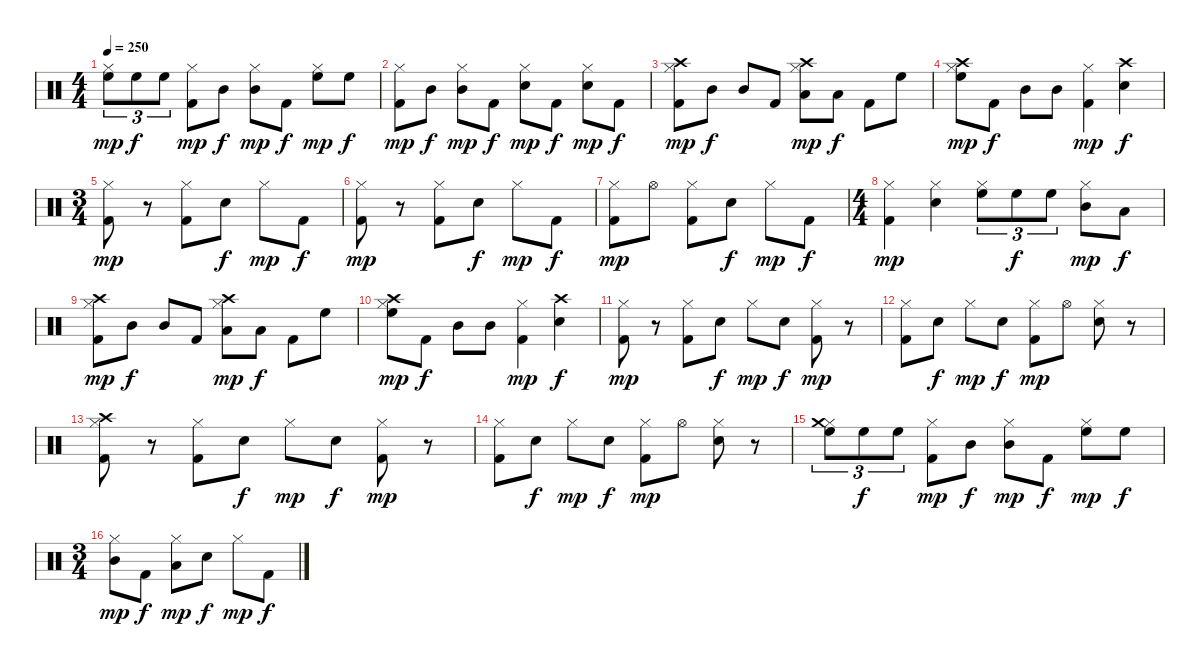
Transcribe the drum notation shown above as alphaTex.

\track "" {instrument percussion}
\staff {score}
\articulation defaults
\ts (4 4)
\tempo 250
\clef neutral
\ks c
("Hi-Hat (closed)" "High Floor Tom (hit)").8{tu (3 2) dy mp balance 14} "High Floor Tom (hit)".8{tu (3 2) dy f} "High Floor Tom (hit)".8{tu (3 2)} ("Hi-Hat (closed)" "Kick (hit) 2").8{dy mp balance 8} "Mid Tom (hit)".8{dy f} ("Hi-Hat (closed)" "Mid Tom (hit)").8{dy mp} "Kick (hit) 2".8{dy f} ("Hi-Hat (closed)" "High Floor Tom (hit)").8{dy mp balance 14} "High Floor Tom (hit)".8{dy f} |
("Hi-Hat (closed)" "Kick (hit) 2").8{dy mp balance 8} "Mid Tom (hit)".8{dy f} ("Hi-Hat (closed)" "Mid Tom (hit)").8{dy mp} "Kick (hit) 2".8{dy f} ("Hi-Hat (closed)" "Electric Snare (hit)").8{dy mp} "Kick (hit) 2".8{dy f} ("Hi-Hat (closed)" "Electric Snare (hit)").8{dy mp} "Kick (hit) 2".8{dy f} |
("Hi-Hat (closed)" "Kick (hit) 2" "Crash high (hit)").8{dy mp} "Mid Tom (hit)".8{dy f} "Mid Tom (hit)".8 "Kick (hit) 2".8 ("Hi-Hat (closed)" "Low Tom (hit)" "Crash high (hit)").8{dy mp balance 2} "Low Tom (hit)".8{dy f} "Kick (hit) 2".8{balance 8} "High Floor Tom (hit)".8{balance 14} |
("Hi-Hat (closed)" "High Floor Tom (hit)" "Crash high (hit)").8{dy mp} "Kick (hit) 2".8{dy f balance 8} "Mid Tom (hit)".8 "Mid Tom (hit)".8 ("Hi-Hat (closed)" "Kick (hit) 2").4{dy mp} ("Electric Snare (hit)" "Crash high (hit)").4{dy f} |
\ts (3 4)
("Hi-Hat (closed)" "Kick (hit) 2").8{dy mp} r.8 ("Hi-Hat (closed)" "Kick (hit) 2").8 "Electric Snare (hit)".8{dy f} "Hi-Hat (closed)".8{dy mp} "Kick (hit) 2".8{dy f} |
("Hi-Hat (closed)" "Kick (hit) 2").8{dy mp} r.8 ("Hi-Hat (closed)" "Kick (hit) 2").8 "Electric Snare (hit)".8{dy f} "Hi-Hat (closed)".8{dy mp} "Kick (hit) 2".8{dy f} |
("Hi-Hat (closed)" "Kick (hit) 2").8{dy mp} "Hi-Hat (open)".8 ("Hi-Hat (closed)" "Kick (hit) 2").8 "Electric Snare (hit)".8{dy f} "Hi-Hat (closed)".8{dy mp} "Kick (hit) 2".8{dy f} |
\ts (4 4)
("Hi-Hat (closed)" "Kick (hit) 2").4{dy mp} ("Hi-Hat (closed)" "Electric Snare (hit)").4 ("Hi-Hat (closed)" "High Floor Tom (hit)").8{tu (3 2) balance 16} "High Floor Tom (hit)".8{tu (3 2) dy f} "High Floor Tom (hit)".8{tu (3 2)} ("Hi-Hat (closed)" "Mid Tom (hit)").8{dy mp balance 8} "Low Tom (hit)".8{dy f balance 0} |
("Hi-Hat (closed)" "Kick (hit) 2" "Crash high (hit)").8{dy mp} "Mid Tom (hit)".8{dy f} "Mid Tom (hit)".8 "Kick (hit) 2".8 ("Hi-Hat (closed)" "Low Tom (hit)" "Crash high (hit)").8{dy mp balance 2} "Low Tom (hit)".8{dy f} "Kick (hit) 2".8{balance 8} "High Floor Tom (hit)".8{balance 14} |
("Hi-Hat (closed)" "High Floor Tom (hit)" "Crash high (hit)").8{dy mp} "Kick (hit) 2".8{dy f balance 8} "Mid Tom (hit)".8 "Mid Tom (hit)".8 ("Hi-Hat (closed)" "Kick (hit) 2").4{dy mp} ("Electric Snare (hit)" "Crash high (hit)").4{dy f} |
("Kick (hit) 2" "Hi-Hat (closed)").8{dy mp} r.8 ("Kick (hit) 2" "Hi-Hat (closed)").8 "Electric Snare (hit)".8{dy f} "Hi-Hat (closed)".8{dy mp} "Electric Snare (hit)".8{dy f} ("Kick (hit) 2" "Hi-Hat (closed)").8{dy mp} r.8 |
("Kick (hit) 2" "Hi-Hat (closed)").8 "Electric Snare (hit)".8{dy f} "Hi-Hat (closed)".8{dy mp} "Electric Snare (hit)".8{dy f} ("Kick (hit) 2" "Hi-Hat (closed)").8{dy mp} "Hi-Hat (open)".8 ("Electric Snare (hit)" "Hi-Hat (closed)").8 r.8 |
("Kick (hit) 2" "Hi-Hat (closed)" "Crash high (hit)").8 r.8 ("Kick (hit) 2" "Hi-Hat (closed)").8 "Electric Snare (hit)".8{dy f} "Hi-Hat (closed)".8{dy mp} "Electric Snare (hit)".8{dy f} ("Kick (hit) 2" "Hi-Hat (closed)").8{dy mp} r.8 |
("Kick (hit) 2" "Hi-Hat (closed)").8 "Electric Snare (hit)".8{dy f} "Hi-Hat (closed)".8{dy mp} "Electric Snare (hit)".8{dy f} ("Kick (hit) 2" "Hi-Hat (closed)").8{dy mp} "Hi-Hat (open)".8 ("Electric Snare (hit)" "Hi-Hat (closed)").8 r.8 |
("Hi-Hat (closed)" "High Floor Tom (hit)" "Crash medium (hit)").8{tu (3 2) balance 14} "High Floor Tom (hit)".8{tu (3 2) dy f} "High Floor Tom (hit)".8{tu (3 2)} ("Hi-Hat (closed)" "Kick (hit) 2").8{dy mp balance 8} "Mid Tom (hit)".8{dy f} ("Hi-Hat (closed)" "Mid Tom (hit)").8{dy mp} "Kick (hit) 2".8{dy f} ("Hi-Hat (closed)" "High Floor Tom (hit)").8{dy mp balance 14} "High Floor Tom (hit)".8{dy f} |
\ts (3 4)
("Hi-Hat (closed)" "Mid Tom (hit)").8{dy mp balance 8} "Kick (hit) 2".8{dy f} ("Hi-Hat (closed)" "Low Tom (hit)").8{dy mp balance 2} "Electric Snare (hit)".8{dy f balance 8} "Hi-Hat (closed)".8{dy mp} "Kick (hit) 2".8{dy f}
